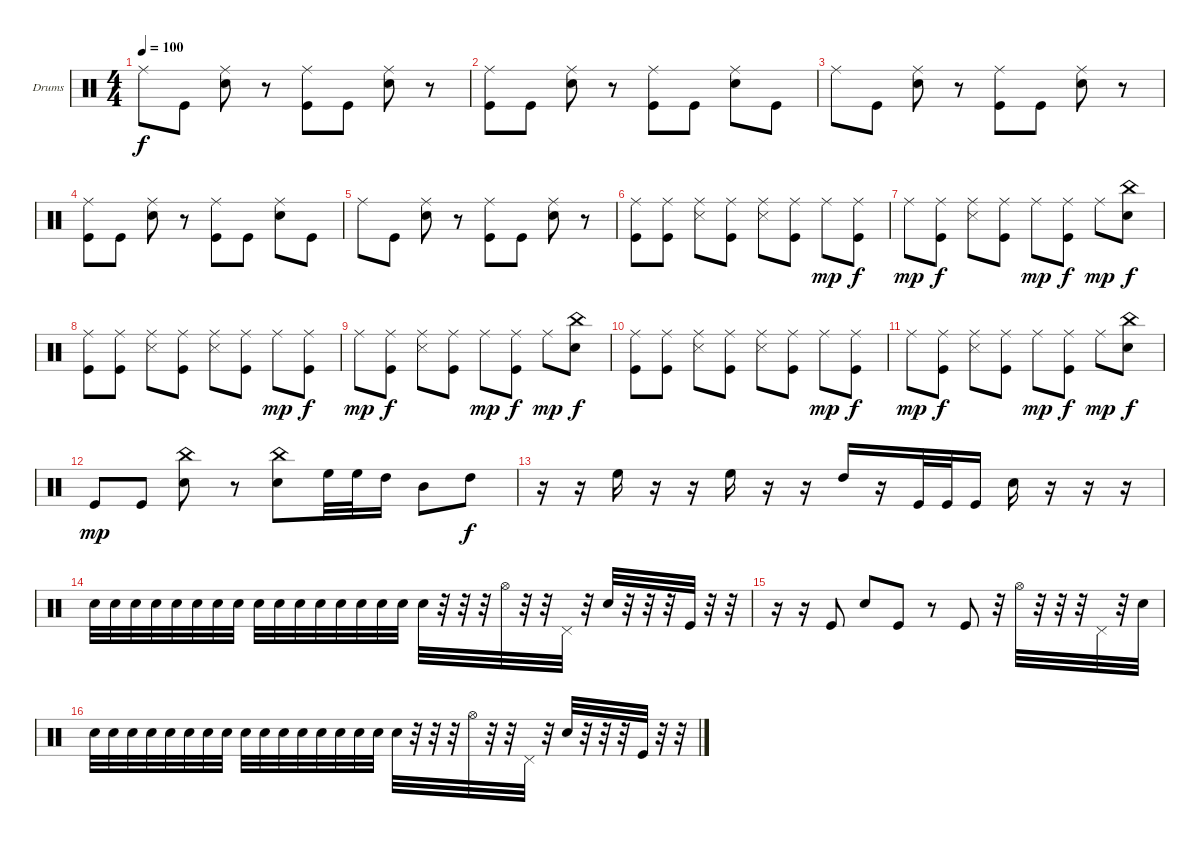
\bracketExtendMode groupsimilarinstruments
\firstSystemTrackNameOrientation horizontal
\otherSystemsTrackNameOrientation horizontal
\track ("Drumkit" "Drums") {instrument percussion}
\staff {score}
\articulation defaults
\ts (4 4)
\tempo 100
\clef neutral
\ks c "Ride (middle)".8{dy f} "Kick (hit)".8
("Snare (hit) 2" "Ride (middle)").8 r.8 ("Kick (hit)" "Ride (middle)").8 "Kick (hit)".8 ("Snare (hit) 2" "Ride (middle)").8 r.8 |
("Kick (hit)" "Ride (middle)").8 "Kick (hit)".8 ("Snare (hit) 2" "Ride (middle)").8 r.8 ("Kick (hit)" "Ride (middle)").8 "Kick (hit)".8 ("Snare (hit) 2" "Ride (middle)").8 "Kick (hit)".8 |
"Ride (middle)".8 "Kick (hit)".8 ("Snare (hit) 2" "Ride (middle)").8 r.8 ("Kick (hit)" "Ride (middle)").8 "Kick (hit)".8 ("Snare (hit) 2" "Ride (middle)").8 r.8 |
("Kick (hit)" "Ride (middle)").8 "Kick (hit)".8 ("Snare (hit) 2" "Ride (middle)").8 r.8 ("Kick (hit)" "Ride (middle)").8 "Kick (hit)".8 ("Snare (hit) 2" "Ride (middle)").8 "Kick (hit)".8 |
"Ride (middle)".8 "Kick (hit)".8 ("Snare (hit) 2" "Ride (middle)").8 r.8 ("Kick (hit)" "Ride (middle)").8 "Kick (hit)".8 ("Snare (hit) 2" "Ride (middle)").8 r.8 |
("Kick (hit)" "Ride (middle)").8 ("Kick (hit)" "Ride (middle)").8 ("Snare (side stick) 3" "Ride (middle)").8 ("Kick (hit)" "Ride (middle)").8 ("Snare (side stick) 3" "Ride (middle)").8 ("Kick (hit)" "Ride (middle)").8 "Ride (middle)".8{dy mp} ("Kick (hit)" "Ride (middle)").8{dy f} |
"Ride (middle)".8{dy mp} ("Kick (hit)" "Ride (middle)").8{dy f} ("Snare (side stick) 3" "Ride (middle)").8 ("Kick (hit)" "Ride (middle)").8 "Ride (middle)".8{dy mp} ("Kick (hit)" "Ride (middle)").8{dy f} "Ride (middle)".8{dy mp} ("Snare (hit) 2" "China (hit)").8{dy f} |
("Kick (hit)" "Ride (middle)").8 ("Kick (hit)" "Ride (middle)").8 ("Snare (side stick) 3" "Ride (middle)").8 ("Kick (hit)" "Ride (middle)").8 ("Snare (side stick) 3" "Ride (middle)").8 ("Kick (hit)" "Ride (middle)").8 "Ride (middle)".8{dy mp} ("Kick (hit)" "Ride (middle)").8{dy f} |
"Ride (middle)".8{dy mp} ("Kick (hit)" "Ride (middle)").8{dy f} ("Snare (side stick) 3" "Ride (middle)").8 ("Kick (hit)" "Ride (middle)").8 "Ride (middle)".8{dy mp} ("Kick (hit)" "Ride (middle)").8{dy f} "Ride (middle)".8{dy mp} ("Snare (hit) 2" "China (hit)").8{dy f} |
("Kick (hit)" "Ride (middle)").8 ("Kick (hit)" "Ride (middle)").8 ("Snare (side stick) 3" "Ride (middle)").8 ("Kick (hit)" "Ride (middle)").8 ("Snare (side stick) 3" "Ride (middle)").8 ("Kick (hit)" "Ride (middle)").8 "Ride (middle)".8{dy mp} ("Kick (hit)" "Ride (middle)").8{dy f} |
"Ride (middle)".8{dy mp} ("Kick (hit)" "Ride (middle)").8{dy f} ("Snare (side stick) 3" "Ride (middle)").8 ("Kick (hit)" "Ride (middle)").8 "Ride (middle)".8{dy mp} ("Kick (hit)" "Ride (middle)").8{dy f} "Ride (middle)".8{dy mp} ("Snare (hit) 2" "China (hit)").8{dy f} |
"Kick (hit)".8{dy mp} "Kick (hit)".8 ("Snare (hit) 2" "China (hit)").8 r.8 ("Snare (hit) 2" "China (hit)").8 "High Floor Tom (hit)".32 "High Floor Tom (hit)".32 "High Tom (hit)".16 "Mid Tom (hit)".8 "High Tom (hit)".8{dy f} |
r.16 r.16 "High Floor Tom (hit)".16 r.16 r.16 "High Floor Tom (hit)".16 r.16 r.16 "High Tom (hit)".16 r.16 "Kick (hit)".32 "Kick (hit)".32 "Kick (hit)".16 "Snare (hit) 2".16 r.16 r.16 r.16 |
"Snare (hit) 2".32 "Snare (hit) 2".32 "Snare (hit) 2".32 "Snare (hit) 2".32 "Snare (hit) 2".32 "Snare (hit) 2".32 "Snare (hit) 2".32 "Snare (hit) 2".32 "Snare (hit) 2".32 "Snare (hit) 2".32 "Snare (hit) 2".32 "Snare (hit) 2".32 "Snare (hit) 2".32 "Snare (hit) 2".32 "Snare (hit) 2".32 "Snare (hit) 2".32 "Snare (hit) 2".32 r.32 r.32 r.32 "Hi-Hat (open)".32 r.32 r.32 "Pedal Hi-Hat (hit)".32 r.32 "Snare (hit) 2".32 r.32 r.32 r.32 "Kick (hit)".32 r.32 r.32 |
r.16 r.16 "Kick (hit)".8 "Snare (hit) 2".8 "Kick (hit)".8 r.8 "Kick (hit)".8 r.32 "Hi-Hat (open)".32 r.32 r.32 r.32 "Pedal Hi-Hat (hit)".32 r.32 "Snare (hit) 2".32 |
"Snare (hit) 2".32 "Snare (hit) 2".32 "Snare (hit) 2".32 "Snare (hit) 2".32 "Snare (hit) 2".32 "Snare (hit) 2".32 "Snare (hit) 2".32 "Snare (hit) 2".32 "Snare (hit) 2".32 "Snare (hit) 2".32 "Snare (hit) 2".32 "Snare (hit) 2".32 "Snare (hit) 2".32 "Snare (hit) 2".32 "Snare (hit) 2".32 "Snare (hit) 2".32 "Snare (hit) 2".32 r.32 r.32 r.32 "Hi-Hat (open)".32 r.32 r.32 "Pedal Hi-Hat (hit)".32 r.32 "Snare (hit) 2".32 r.32 r.32 r.32 "Kick (hit)".32 r.32 r.32
